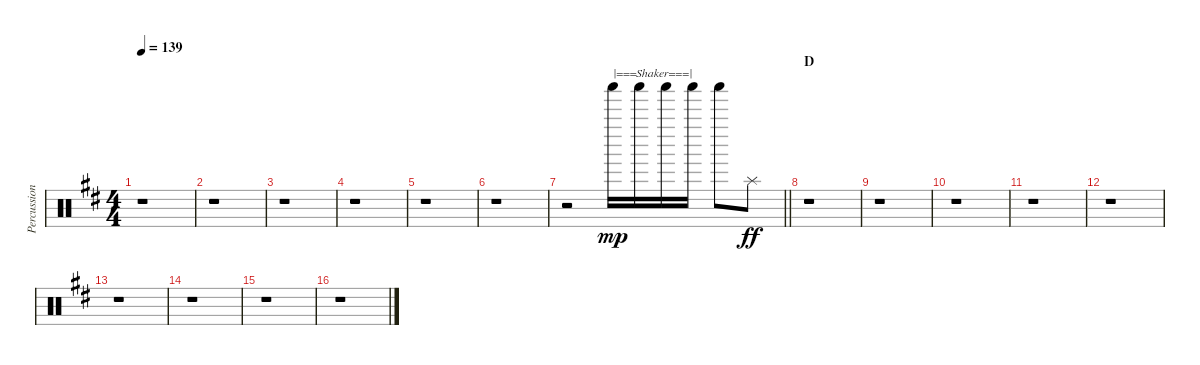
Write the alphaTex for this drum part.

\track ("Percussion" "Percussion") {instrument percussion}
\staff {score}
\articulation defaults
\ts (4 4)
\tempo 139
\clef neutral
\ks d
r.1{dy mp} |
r.1 |
r.1 |
r.1 |
r.1 |
r.1 |
\barLineRight lightlight
r.2 "Shaker (hit)".16{txt "|===Shaker===|"} "Shaker (hit)".16 "Shaker (hit)".16 "Shaker (hit)".16 "Shaker (hit)".8 "Splash (hit)".8{dy ff} |
\section ("" "D")
r.1 |
r.1 |
r.1 |
r.1 |
r.1 |
r.1 |
r.1 |
r.1 |
r.1
